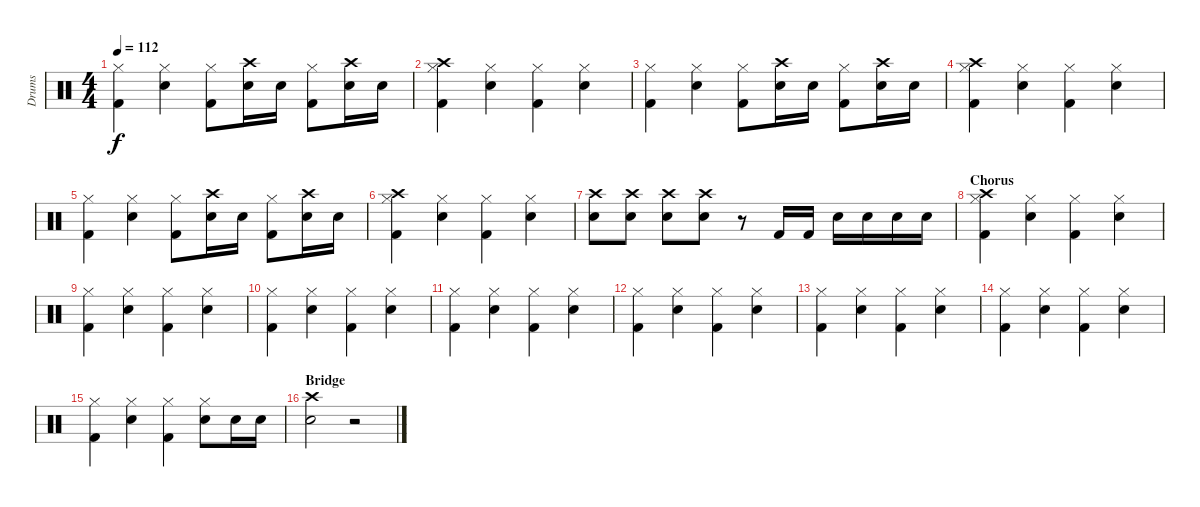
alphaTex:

\track ("Drums" "Drums") {instrument percussion}
\staff {score}
\articulation defaults
\ts (4 4)
\tempo 112
\clef neutral
\ks c
("Kick (hit) 2" "Hi-Hat (closed)").4{dy f} ("Hi-Hat (closed)" "Electric Snare (hit)").4 ("Kick (hit) 2" "Hi-Hat (closed)").8 ("Electric Snare (hit)" "Crash high (hit)").16 "Electric Snare (hit)".16 ("Kick (hit) 2" "Hi-Hat (closed)").8 ("Crash high (hit)" "Electric Snare (hit)").16 "Electric Snare (hit)".16 |
("Kick (hit) 2" "Hi-Hat (closed)" "Crash high (hit)").4 ("Hi-Hat (closed)" "Electric Snare (hit)").4 ("Kick (hit) 2" "Hi-Hat (closed)").4 ("Hi-Hat (closed)" "Electric Snare (hit)").4 |
("Kick (hit) 2" "Hi-Hat (closed)").4 ("Hi-Hat (closed)" "Electric Snare (hit)").4 ("Kick (hit) 2" "Hi-Hat (closed)").8 ("Electric Snare (hit)" "Crash high (hit)").16 "Electric Snare (hit)".16 ("Kick (hit) 2" "Hi-Hat (closed)").8 ("Crash high (hit)" "Electric Snare (hit)").16 "Electric Snare (hit)".16 |
("Kick (hit) 2" "Hi-Hat (closed)" "Crash high (hit)").4 ("Hi-Hat (closed)" "Electric Snare (hit)").4 ("Kick (hit) 2" "Hi-Hat (closed)").4 ("Hi-Hat (closed)" "Electric Snare (hit)").4 |
("Kick (hit) 2" "Hi-Hat (closed)").4 ("Hi-Hat (closed)" "Electric Snare (hit)").4 ("Kick (hit) 2" "Hi-Hat (closed)").8 ("Electric Snare (hit)" "Crash high (hit)").16 "Electric Snare (hit)".16 ("Kick (hit) 2" "Hi-Hat (closed)").8 ("Crash high (hit)" "Electric Snare (hit)").16 "Electric Snare (hit)".16 |
("Kick (hit) 2" "Hi-Hat (closed)" "Crash high (hit)").4 ("Hi-Hat (closed)" "Electric Snare (hit)").4 ("Kick (hit) 2" "Hi-Hat (closed)").4 ("Hi-Hat (closed)" "Electric Snare (hit)").4 |
("Crash high (hit)" "Electric Snare (hit)").8 ("Crash high (hit)" "Electric Snare (hit)").8 ("Crash high (hit)" "Electric Snare (hit)").8 ("Crash high (hit)" "Electric Snare (hit)").8 r.8 "Kick (hit) 2".16 "Kick (hit) 2".16 "Electric Snare (hit)".16 "Electric Snare (hit)".16 "Electric Snare (hit)".16 "Electric Snare (hit)".16 |
\section ("" "Chorus")
("Kick (hit) 2" "Hi-Hat (closed)" "Crash high (hit)").4 ("Hi-Hat (closed)" "Electric Snare (hit)").4 ("Kick (hit) 2" "Hi-Hat (closed)").4 ("Hi-Hat (closed)" "Electric Snare (hit)").4 |
("Kick (hit) 2" "Hi-Hat (closed)").4 ("Hi-Hat (closed)" "Electric Snare (hit)").4 ("Kick (hit) 2" "Hi-Hat (closed)").4 ("Electric Snare (hit)" "Hi-Hat (closed)").4 |
("Kick (hit) 2" "Hi-Hat (closed)").4 ("Hi-Hat (closed)" "Electric Snare (hit)").4 ("Kick (hit) 2" "Hi-Hat (closed)").4 ("Hi-Hat (closed)" "Electric Snare (hit)").4 |
("Kick (hit) 2" "Hi-Hat (closed)").4 ("Hi-Hat (closed)" "Electric Snare (hit)").4 ("Kick (hit) 2" "Hi-Hat (closed)").4 ("Hi-Hat (closed)" "Electric Snare (hit)").4 |
("Kick (hit) 2" "Hi-Hat (closed)").4 ("Hi-Hat (closed)" "Electric Snare (hit)").4 ("Kick (hit) 2" "Hi-Hat (closed)").4 ("Hi-Hat (closed)" "Electric Snare (hit)").4 |
("Kick (hit) 2" "Hi-Hat (closed)").4 ("Hi-Hat (closed)" "Electric Snare (hit)").4 ("Kick (hit) 2" "Hi-Hat (closed)").4 ("Hi-Hat (closed)" "Electric Snare (hit)").4 |
("Kick (hit) 2" "Hi-Hat (closed)").4 ("Hi-Hat (closed)" "Electric Snare (hit)").4 ("Kick (hit) 2" "Hi-Hat (closed)").4 ("Hi-Hat (closed)" "Electric Snare (hit)").4 |
("Kick (hit) 2" "Hi-Hat (closed)").4 ("Hi-Hat (closed)" "Electric Snare (hit)").4 ("Kick (hit) 2" "Hi-Hat (closed)").4 ("Hi-Hat (closed)" "Electric Snare (hit)").8 "Electric Snare (hit)".16 "Electric Snare (hit)".16 |
\section ("" "Bridge")
("Crash high (hit)" "Electric Snare (hit)").2 r.2
